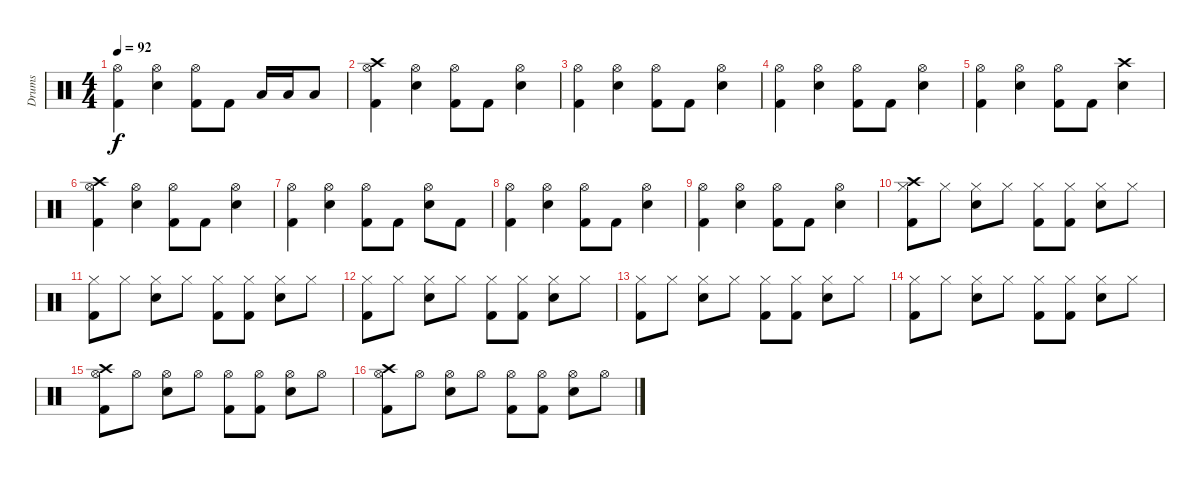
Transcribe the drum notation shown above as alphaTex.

\track ("Drums" "Drums") {instrument percussion}
\staff {score}
\articulation defaults
\ts (4 4)
\tempo 92
\clef neutral
\ks c
("Kick (hit) 2" "Hi-Hat (open)").4{dy f} ("Electric Snare (hit)" "Hi-Hat (open)").4 ("Kick (hit) 2" "Hi-Hat (open)").8 "Kick (hit) 2".8 "Low Floor Tom (hit)".16 "Low Floor Tom (hit)".16 "Low Floor Tom (hit)".8 |
("Kick (hit) 2" "Hi-Hat (open)" "Crash high (hit)").4 ("Electric Snare (hit)" "Hi-Hat (open)").4 ("Kick (hit) 2" "Hi-Hat (open)").8 "Kick (hit) 2".8 ("Electric Snare (hit)" "Hi-Hat (open)").4 |
("Kick (hit) 2" "Hi-Hat (open)").4 ("Electric Snare (hit)" "Hi-Hat (open)").4 ("Kick (hit) 2" "Hi-Hat (open)").8 "Kick (hit) 2".8 ("Electric Snare (hit)" "Hi-Hat (open)").4 |
("Kick (hit) 2" "Hi-Hat (open)").4 ("Electric Snare (hit)" "Hi-Hat (open)").4 ("Kick (hit) 2" "Hi-Hat (open)").8 "Kick (hit) 2".8 ("Electric Snare (hit)" "Hi-Hat (open)").4 |
("Kick (hit) 2" "Hi-Hat (open)").4 ("Electric Snare (hit)" "Hi-Hat (open)").4 ("Kick (hit) 2" "Hi-Hat (open)").8 "Kick (hit) 2".8 ("Electric Snare (hit)" "Crash high (hit)").4 |
("Kick (hit) 2" "Hi-Hat (open)" "Crash high (hit)").4 ("Electric Snare (hit)" "Hi-Hat (open)").4 ("Kick (hit) 2" "Hi-Hat (open)").8 "Kick (hit) 2".8 ("Electric Snare (hit)" "Hi-Hat (open)").4 |
("Kick (hit) 2" "Hi-Hat (open)").4 ("Electric Snare (hit)" "Hi-Hat (open)").4 ("Kick (hit) 2" "Hi-Hat (open)").8 "Kick (hit) 2".8 ("Electric Snare (hit)" "Hi-Hat (open)").8 "Kick (hit) 2".8 |
("Kick (hit) 2" "Hi-Hat (open)").4 ("Electric Snare (hit)" "Hi-Hat (open)").4 ("Kick (hit) 2" "Hi-Hat (open)").8 "Kick (hit) 2".8 ("Electric Snare (hit)" "Hi-Hat (open)").4 |
("Kick (hit) 2" "Hi-Hat (open)").4 ("Electric Snare (hit)" "Hi-Hat (open)").4 ("Kick (hit) 2" "Hi-Hat (open)").8 "Kick (hit) 2".8 ("Electric Snare (hit)" "Hi-Hat (open)").4 |
("Kick (hit) 2" "Hi-Hat (closed)" "Crash high (hit)").8 "Hi-Hat (closed)".8 ("Electric Snare (hit)" "Hi-Hat (closed)").8 "Hi-Hat (closed)".8 ("Kick (hit) 2" "Hi-Hat (closed)").8 ("Kick (hit) 2" "Hi-Hat (closed)").8 ("Electric Snare (hit)" "Hi-Hat (closed)").8 "Hi-Hat (closed)".8 |
("Kick (hit) 2" "Hi-Hat (closed)").8 "Hi-Hat (closed)".8 ("Electric Snare (hit)" "Hi-Hat (closed)").8 "Hi-Hat (closed)".8 ("Kick (hit) 2" "Hi-Hat (closed)").8 ("Kick (hit) 2" "Hi-Hat (closed)").8 ("Electric Snare (hit)" "Hi-Hat (closed)").8 "Hi-Hat (closed)".8 |
("Kick (hit) 2" "Hi-Hat (closed)").8 "Hi-Hat (closed)".8 ("Electric Snare (hit)" "Hi-Hat (closed)").8 "Hi-Hat (closed)".8 ("Kick (hit) 2" "Hi-Hat (closed)").8 ("Kick (hit) 2" "Hi-Hat (closed)").8 ("Electric Snare (hit)" "Hi-Hat (closed)").8 "Hi-Hat (closed)".8 |
("Kick (hit) 2" "Hi-Hat (closed)").8 "Hi-Hat (closed)".8 ("Electric Snare (hit)" "Hi-Hat (closed)").8 "Hi-Hat (closed)".8 ("Kick (hit) 2" "Hi-Hat (closed)").8 ("Kick (hit) 2" "Hi-Hat (closed)").8 ("Electric Snare (hit)" "Hi-Hat (closed)").8 "Hi-Hat (closed)".8 |
("Kick (hit) 2" "Hi-Hat (closed)").8 "Hi-Hat (closed)".8 ("Electric Snare (hit)" "Hi-Hat (closed)").8 "Hi-Hat (closed)".8 ("Kick (hit) 2" "Hi-Hat (closed)").8 ("Kick (hit) 2" "Hi-Hat (closed)").8 ("Electric Snare (hit)" "Hi-Hat (closed)").8 "Hi-Hat (closed)".8 |
("Kick (hit) 2" "Hi-Hat (open)" "Crash high (hit)").8 "Hi-Hat (open)".8 ("Electric Snare (hit)" "Hi-Hat (open)").8 "Hi-Hat (open)".8 ("Kick (hit) 2" "Hi-Hat (open)").8 ("Kick (hit) 2" "Hi-Hat (open)").8 ("Electric Snare (hit)" "Hi-Hat (open)").8 "Hi-Hat (open)".8 |
("Kick (hit) 2" "Hi-Hat (open)" "Crash high (hit)").8 "Hi-Hat (open)".8 ("Electric Snare (hit)" "Hi-Hat (open)").8 "Hi-Hat (open)".8 ("Kick (hit) 2" "Hi-Hat (open)").8 ("Kick (hit) 2" "Hi-Hat (open)").8 ("Electric Snare (hit)" "Hi-Hat (open)").8 "Hi-Hat (open)".8
